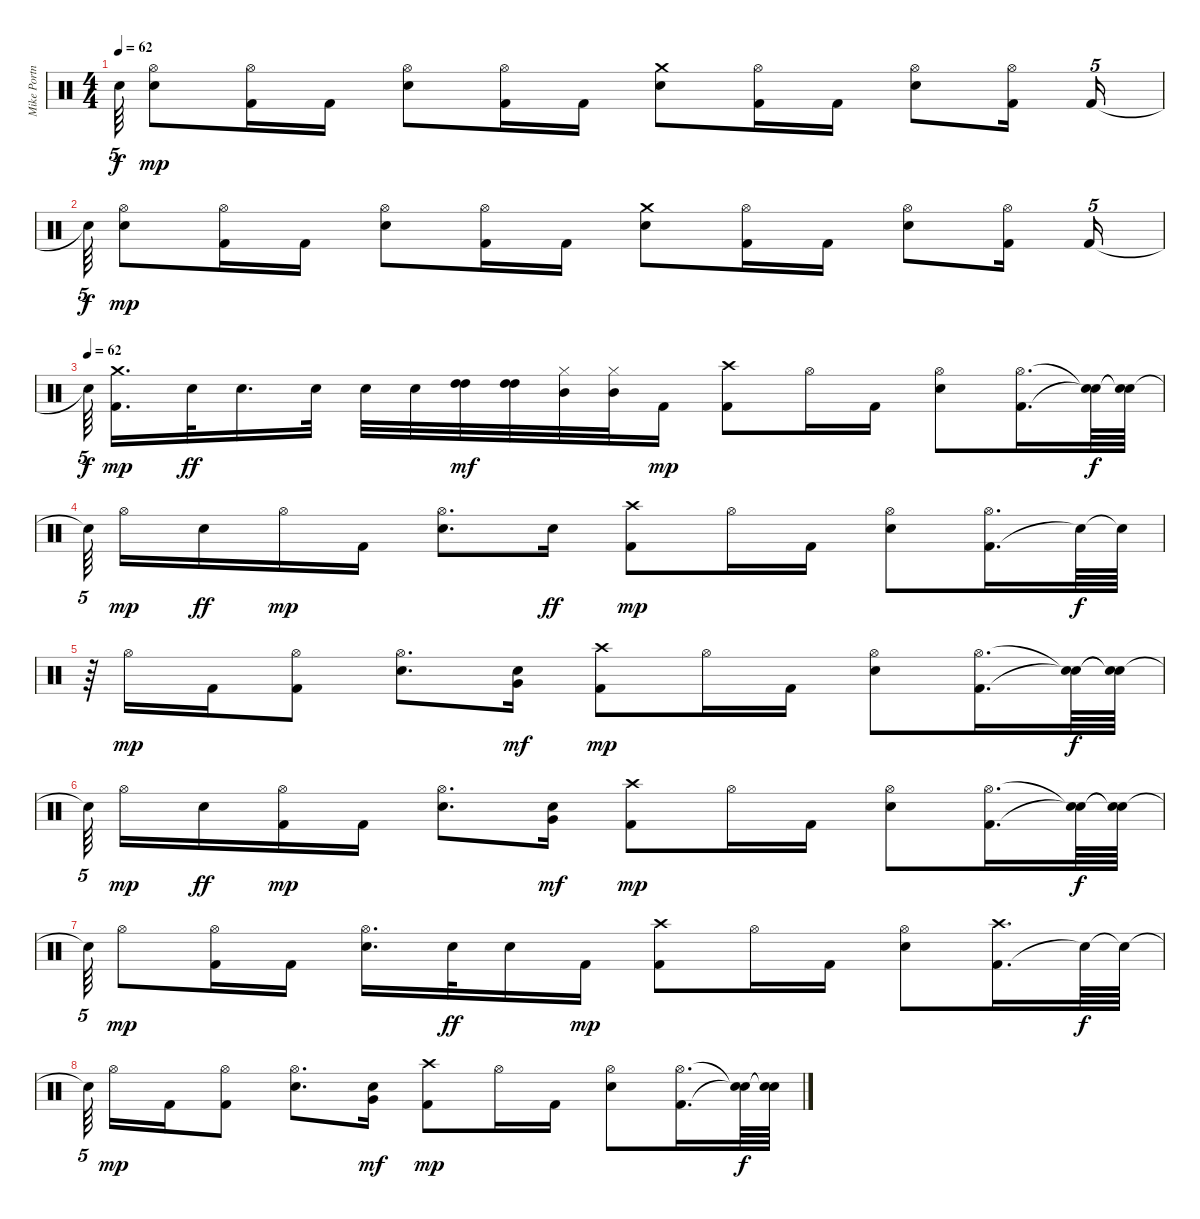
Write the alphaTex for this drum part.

\track ("Mike Portnoy" "Mike Portn") {instrument percussion}
\staff {score}
\articulation defaults
\ts (4 4)
\tempo 62
\clef neutral
\ks c "Snare (hit)"{t}.64{tu (5 4) dy f}
("Electric Snare (hit)" "Hi-Hat (open)").8{dy mp} ("Kick (hit) 2" "Hi-Hat (open)").16 "Kick (hit) 2".16 ("Electric Snare (hit)" "Hi-Hat (open)").8 ("Kick (hit) 2" "Hi-Hat (open)").16 "Kick (hit) 2".16 ("Electric Snare (hit)" "Crash medium (hit)").8 ("Kick (hit) 2" "Hi-Hat (open)").16 "Kick (hit) 2".16 ("Electric Snare (hit)" "Hi-Hat (open)").8 ("Kick (hit) 2" "Hi-Hat (open)").16 "Kick (hit) 2".16{tu (5 4)} |
"Snare (hit)"{t}.64{tu (5 4) dy f} ("Electric Snare (hit)" "Hi-Hat (open)").8{dy mp} ("Kick (hit) 2" "Hi-Hat (open)").16 "Kick (hit) 2".16 ("Electric Snare (hit)" "Hi-Hat (open)").8 ("Kick (hit) 2" "Hi-Hat (open)").16 "Kick (hit) 2".16 ("Electric Snare (hit)" "Crash medium (hit)").8 ("Kick (hit) 2" "Hi-Hat (open)").16 "Kick (hit) 2".16 ("Electric Snare (hit)" "Hi-Hat (open)").8 ("Kick (hit) 2" "Hi-Hat (open)").16 "Kick (hit) 2".16{tu (5 4)} |
\tempo (62)
"Snare (hit)"{t}.64{tu (5 4) dy f} ("Kick (hit) 2" "Crash medium (hit)").16{d dy mp} "Electric Snare (hit)".32{dy ff} "Electric Snare (hit)".16{d} "Electric Snare (hit)".32 "Electric Snare (hit)".32 "Electric Snare (hit)".32 ("High Tom (hit)" "High Tom (hit)").32{dy mf balance 0} ("High Tom (hit)" "High Tom (hit)").32 ("Hi-Hat (closed)" "Mid Tom (hit)").32{balance 2} ("Hi-Hat (closed)" "Mid Tom (hit)").32 "Kick (hit) 2".16{dy mp} ("Kick (hit) 2" "Crash high (hit)").8 "Hi-Hat (open)".16 "Kick (hit) 2".16 ("Electric Snare (hit)" "Hi-Hat (open)").8 ("Kick (hit) 2" "Hi-Hat (open)").16{d} ("Snare (hit)"{t} "Snare (hit)"{t}).64{dy f} ("Snare (hit)"{t} "Snare (hit)"{t}).64 |
"Snare (hit)"{t}.64{tu (5 4)} "Hi-Hat (open)".16{dy mp} "Electric Snare (hit)".16{dy ff} "Hi-Hat (open)".16{dy mp} "Kick (hit) 2".16 ("Electric Snare (hit)" "Hi-Hat (open)").8{d} "Electric Snare (hit)".16{dy ff} ("Kick (hit) 2" "Crash high (hit)").8{dy mp} "Hi-Hat (open)".16 "Kick (hit) 2".16 ("Electric Snare (hit)" "Hi-Hat (open)").8 ("Kick (hit) 2" "Hi-Hat (open)").16{d} "Snare (hit)"{t}.64{dy f} "Snare (hit)"{t}.64 |
r.64{tu (5 4)} "Hi-Hat (open)".16{dy mp} "Kick (hit) 2".16 ("Kick (hit) 2" "Hi-Hat (open)").8 ("Electric Snare (hit)" "Hi-Hat (open)").8{d} ("Snare (hit)" "Very Low Tom (hit)").16{dy mf balance 12} ("Kick (hit) 2" "Crash high (hit)").8{dy mp} "Hi-Hat (open)".16 "Kick (hit) 2".16 ("Electric Snare (hit)" "Hi-Hat (open)").8 ("Kick (hit) 2" "Hi-Hat (open)").16{d} ("Snare (hit)"{t} "Snare (hit)"{t}).64{dy f} ("Snare (hit)"{t} "Snare (hit)"{t}).64 |
"Snare (hit)"{t}.64{tu (5 4)} "Hi-Hat (open)".16{dy mp} "Electric Snare (hit)".16{dy ff} ("Kick (hit) 2" "Hi-Hat (open)").16{dy mp} "Kick (hit) 2".16 ("Electric Snare (hit)" "Hi-Hat (open)").8{d} ("Snare (hit)" "Very Low Tom (hit)").16{dy mf} ("Kick (hit) 2" "Crash high (hit)").8{dy mp} "Hi-Hat (open)".16 "Kick (hit) 2".16 ("Electric Snare (hit)" "Hi-Hat (open)").8 ("Kick (hit) 2" "Hi-Hat (open)").16{d} ("Snare (hit)"{t} "Snare (hit)"{t}).64{dy f} ("Snare (hit)"{t} "Snare (hit)"{t}).64 |
"Snare (hit)"{t}.64{tu (5 4)} "Hi-Hat (open)".8{dy mp} ("Kick (hit) 2" "Hi-Hat (open)").16 "Kick (hit) 2".16 ("Electric Snare (hit)" "Hi-Hat (open)").16{d} "Electric Snare (hit)".32{dy ff} "Electric Snare (hit)".16 "Kick (hit) 2".16{dy mp} ("Kick (hit) 2" "Crash high (hit)").8 "Hi-Hat (open)".16 "Kick (hit) 2".16 ("Electric Snare (hit)" "Hi-Hat (open)").8 ("Kick (hit) 2" "Crash high (hit)").16{d} "Snare (hit)"{t}.64{dy f} "Snare (hit)"{t}.64 |
"Snare (hit)"{t}.64{tu (5 4)} "Hi-Hat (open)".16{dy mp} "Kick (hit) 2".16 ("Kick (hit) 2" "Hi-Hat (open)").8 ("Electric Snare (hit)" "Hi-Hat (open)").8{d} ("Snare (hit)" "Very Low Tom (hit)").16{dy mf} ("Kick (hit) 2" "Crash high (hit)").8{dy mp} "Hi-Hat (open)".16 "Kick (hit) 2".16 ("Electric Snare (hit)" "Hi-Hat (open)").8 ("Kick (hit) 2" "Hi-Hat (open)").16{d} ("Snare (hit)"{t} "Snare (hit)"{t}).64{dy f} ("Snare (hit)"{t} "Snare (hit)"{t}).64
